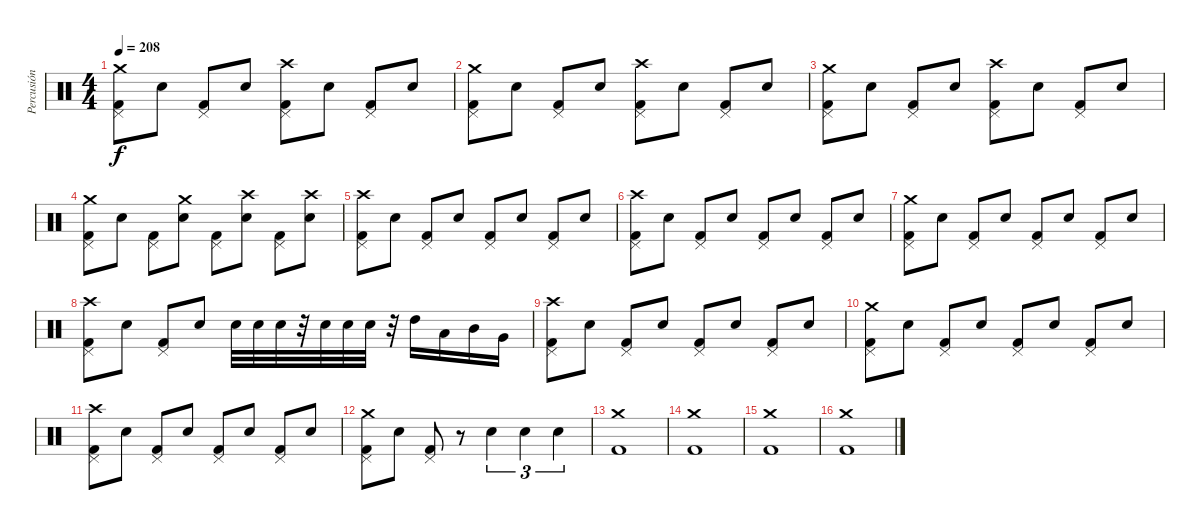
\track ("Percusión" "Percusión") {instrument percussion}
\staff {score}
\articulation defaults
\ts (4 4)
\tempo 208
\clef neutral
\ks c
("Crash medium (hit)" "Pedal Hi-Hat (hit)" "Kick (hit) 2").8{dy f} "Electric Snare (hit)".8 ("Pedal Hi-Hat (hit)" "Kick (hit) 2").8 "Electric Snare (hit)".8 ("Crash high (hit)" "Pedal Hi-Hat (hit)" "Kick (hit) 2").8 "Electric Snare (hit)".8 ("Pedal Hi-Hat (hit)" "Kick (hit) 2").8 "Electric Snare (hit)".8 |
("Crash medium (hit)" "Pedal Hi-Hat (hit)" "Kick (hit) 2").8 "Electric Snare (hit)".8 ("Pedal Hi-Hat (hit)" "Kick (hit) 2").8 "Electric Snare (hit)".8 ("Crash high (hit)" "Pedal Hi-Hat (hit)" "Kick (hit) 2").8 "Electric Snare (hit)".8 ("Pedal Hi-Hat (hit)" "Kick (hit) 2").8 "Electric Snare (hit)".8 |
("Crash medium (hit)" "Pedal Hi-Hat (hit)" "Kick (hit) 2").8 "Electric Snare (hit)".8 ("Pedal Hi-Hat (hit)" "Kick (hit) 2").8 "Electric Snare (hit)".8 ("Crash high (hit)" "Pedal Hi-Hat (hit)" "Kick (hit) 2").8 "Electric Snare (hit)".8 ("Pedal Hi-Hat (hit)" "Kick (hit) 2").8 "Electric Snare (hit)".8 |
("Crash medium (hit)" "Pedal Hi-Hat (hit)" "Kick (hit) 2").8 "Electric Snare (hit)".8 ("Pedal Hi-Hat (hit)" "Kick (hit) 2").8 ("Crash medium (hit)" "Electric Snare (hit)").8 ("Pedal Hi-Hat (hit)" "Kick (hit) 2").8 ("Crash high (hit)" "Electric Snare (hit)").8 ("Pedal Hi-Hat (hit)" "Kick (hit) 2").8 ("Crash high (hit)" "Electric Snare (hit)").8 |
("Crash high (hit)" "Pedal Hi-Hat (hit)" "Kick (hit) 2").8 "Electric Snare (hit)".8 ("Pedal Hi-Hat (hit)" "Kick (hit) 2").8 "Electric Snare (hit)".8 ("Pedal Hi-Hat (hit)" "Kick (hit) 2").8 "Electric Snare (hit)".8 ("Pedal Hi-Hat (hit)" "Kick (hit) 2").8 "Electric Snare (hit)".8 |
("Crash high (hit)" "Pedal Hi-Hat (hit)" "Kick (hit) 2").8 "Electric Snare (hit)".8 ("Pedal Hi-Hat (hit)" "Kick (hit) 2").8 "Electric Snare (hit)".8 ("Pedal Hi-Hat (hit)" "Kick (hit) 2").8 "Electric Snare (hit)".8 ("Pedal Hi-Hat (hit)" "Kick (hit) 2").8 "Electric Snare (hit)".8 |
("Crash medium (hit)" "Pedal Hi-Hat (hit)" "Kick (hit) 2").8 "Electric Snare (hit)".8 ("Pedal Hi-Hat (hit)" "Kick (hit) 2").8 "Electric Snare (hit)".8 ("Pedal Hi-Hat (hit)" "Kick (hit) 2").8 "Electric Snare (hit)".8 ("Pedal Hi-Hat (hit)" "Kick (hit) 2").8 "Electric Snare (hit)".8 |
("Crash high (hit)" "Pedal Hi-Hat (hit)" "Kick (hit) 2").8 "Electric Snare (hit)".8 ("Pedal Hi-Hat (hit)" "Kick (hit) 2").8 "Electric Snare (hit)".8 "Electric Snare (hit)".32 "Electric Snare (hit)".32 "Electric Snare (hit)".32 r.32 "Electric Snare (hit)".32 "Electric Snare (hit)".32 "Electric Snare (hit)".32 r.32 "High Tom (hit)".16 "Low Tom (hit)".16 "Mid Tom (hit)".16 "Very Low Tom (hit)".16 |
("Crash high (hit)" "Pedal Hi-Hat (hit)" "Kick (hit) 2").8 "Electric Snare (hit)".8 ("Pedal Hi-Hat (hit)" "Kick (hit) 2").8 "Electric Snare (hit)".8 ("Pedal Hi-Hat (hit)" "Kick (hit) 2").8 "Electric Snare (hit)".8 ("Pedal Hi-Hat (hit)" "Kick (hit) 2").8 "Electric Snare (hit)".8 |
("Crash medium (hit)" "Pedal Hi-Hat (hit)" "Kick (hit) 2").8 "Electric Snare (hit)".8 ("Pedal Hi-Hat (hit)" "Kick (hit) 2").8 "Electric Snare (hit)".8 ("Pedal Hi-Hat (hit)" "Kick (hit) 2").8 "Electric Snare (hit)".8 ("Pedal Hi-Hat (hit)" "Kick (hit) 2").8 "Electric Snare (hit)".8 |
("Crash high (hit)" "Pedal Hi-Hat (hit)" "Kick (hit) 2").8 "Electric Snare (hit)".8 ("Pedal Hi-Hat (hit)" "Kick (hit) 2").8 "Electric Snare (hit)".8 ("Pedal Hi-Hat (hit)" "Kick (hit) 2").8 "Electric Snare (hit)".8 ("Pedal Hi-Hat (hit)" "Kick (hit) 2").8 "Electric Snare (hit)".8 |
("Crash medium (hit)" "Pedal Hi-Hat (hit)" "Kick (hit) 2").8 "Electric Snare (hit)".8 ("Pedal Hi-Hat (hit)" "Kick (hit) 2").8 r.8 "Electric Snare (hit)".4{tu (3 2)} "Electric Snare (hit)".4{tu (3 2)} "Electric Snare (hit)".4{tu (3 2)} |
("Crash medium (hit)" "Kick (hit) 2").1 |
("Crash medium (hit)" "Kick (hit) 2").1 |
("Crash medium (hit)" "Kick (hit) 2").1 |
("Crash medium (hit)" "Kick (hit) 2").1
